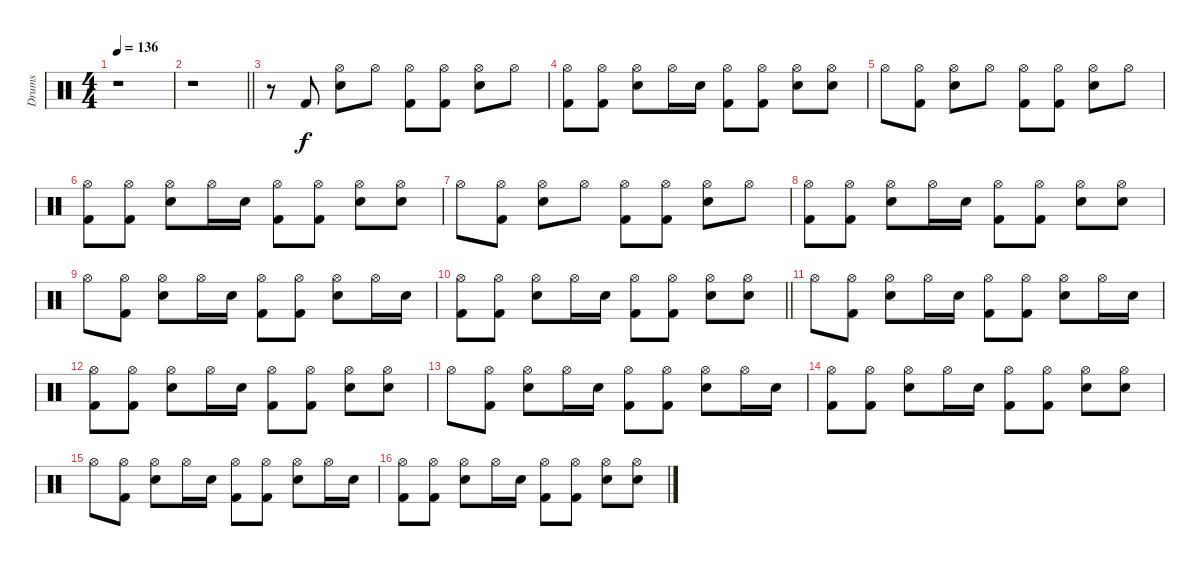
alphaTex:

\track ("Drums" "Drums") {instrument percussion}
\staff {score}
\articulation defaults
\ts (4 4)
\tempo 136
\clef neutral
\ks c
r.1{dy f} |
\barLineRight lightlight
r.1 |
\section ("" "")
r.8 "Kick (hit) 2".8 ("Hi-Hat (open)" "Snare (hit) 2").8 "Hi-Hat (open)".8 ("Hi-Hat (open)" "Kick (hit) 2").8 ("Hi-Hat (open)" "Kick (hit) 2").8 ("Hi-Hat (open)" "Snare (hit) 2").8 "Hi-Hat (open)".8 |
("Hi-Hat (open)" "Kick (hit) 2").8 ("Hi-Hat (open)" "Kick (hit) 2").8 ("Hi-Hat (open)" "Snare (hit) 2").8 "Hi-Hat (open)".16 "Snare (hit) 2".16 ("Hi-Hat (open)" "Kick (hit) 2").8 ("Hi-Hat (open)" "Kick (hit) 2").8 ("Hi-Hat (open)" "Snare (hit) 2").8 ("Hi-Hat (open)" "Snare (hit) 2").8 |
"Hi-Hat (open)".8 ("Hi-Hat (open)" "Kick (hit) 2").8 ("Hi-Hat (open)" "Snare (hit) 2").8 "Hi-Hat (open)".8 ("Hi-Hat (open)" "Kick (hit) 2").8 ("Hi-Hat (open)" "Kick (hit) 2").8 ("Hi-Hat (open)" "Snare (hit) 2").8 "Hi-Hat (open)".8 |
("Hi-Hat (open)" "Kick (hit) 2").8 ("Hi-Hat (open)" "Kick (hit) 2").8 ("Hi-Hat (open)" "Snare (hit) 2").8 "Hi-Hat (open)".16 "Snare (hit) 2".16 ("Hi-Hat (open)" "Kick (hit) 2").8 ("Hi-Hat (open)" "Kick (hit) 2").8 ("Hi-Hat (open)" "Snare (hit) 2").8 ("Hi-Hat (open)" "Snare (hit) 2").8 |
"Hi-Hat (open)".8 ("Hi-Hat (open)" "Kick (hit) 2").8 ("Hi-Hat (open)" "Snare (hit) 2").8 "Hi-Hat (open)".8 ("Hi-Hat (open)" "Kick (hit) 2").8 ("Hi-Hat (open)" "Kick (hit) 2").8 ("Hi-Hat (open)" "Snare (hit) 2").8 "Hi-Hat (open)".8 |
("Hi-Hat (open)" "Kick (hit) 2").8 ("Hi-Hat (open)" "Kick (hit) 2").8 ("Hi-Hat (open)" "Snare (hit) 2").8 "Hi-Hat (open)".16 "Snare (hit) 2".16 ("Hi-Hat (open)" "Kick (hit) 2").8 ("Hi-Hat (open)" "Kick (hit) 2").8 ("Hi-Hat (open)" "Snare (hit) 2").8 ("Hi-Hat (open)" "Snare (hit) 2").8 |
"Hi-Hat (open)".8 ("Hi-Hat (open)" "Kick (hit) 2").8 ("Hi-Hat (open)" "Snare (hit) 2").8 "Hi-Hat (open)".16 "Snare (hit) 2".16 ("Hi-Hat (open)" "Kick (hit) 2").8 ("Hi-Hat (open)" "Kick (hit) 2").8 ("Hi-Hat (open)" "Snare (hit) 2").8 "Hi-Hat (open)".16 "Snare (hit) 2".16 |
\barLineRight lightlight
("Hi-Hat (open)" "Kick (hit) 2").8 ("Hi-Hat (open)" "Kick (hit) 2").8 ("Hi-Hat (open)" "Snare (hit) 2").8 "Hi-Hat (open)".16 "Snare (hit) 2".16 ("Hi-Hat (open)" "Kick (hit) 2").8 ("Hi-Hat (open)" "Kick (hit) 2").8 ("Hi-Hat (open)" "Snare (hit) 2").8 ("Hi-Hat (open)" "Snare (hit) 2").8 |
\section ("" "")
"Hi-Hat (open)".8 ("Hi-Hat (open)" "Kick (hit) 2").8 ("Hi-Hat (open)" "Snare (hit) 2").8 "Hi-Hat (open)".16 "Snare (hit) 2".16 ("Hi-Hat (open)" "Kick (hit) 2").8 ("Hi-Hat (open)" "Kick (hit) 2").8 ("Hi-Hat (open)" "Snare (hit) 2").8 "Hi-Hat (open)".16 "Snare (hit) 2".16 |
("Hi-Hat (open)" "Kick (hit) 2").8 ("Hi-Hat (open)" "Kick (hit) 2").8 ("Hi-Hat (open)" "Snare (hit) 2").8 "Hi-Hat (open)".16 "Snare (hit) 2".16 ("Hi-Hat (open)" "Kick (hit) 2").8 ("Hi-Hat (open)" "Kick (hit) 2").8 ("Hi-Hat (open)" "Snare (hit) 2").8 ("Hi-Hat (open)" "Snare (hit) 2").8 |
"Hi-Hat (open)".8 ("Hi-Hat (open)" "Kick (hit) 2").8 ("Hi-Hat (open)" "Snare (hit) 2").8 "Hi-Hat (open)".16 "Snare (hit) 2".16 ("Hi-Hat (open)" "Kick (hit) 2").8 ("Hi-Hat (open)" "Kick (hit) 2").8 ("Hi-Hat (open)" "Snare (hit) 2").8 "Hi-Hat (open)".16 "Snare (hit) 2".16 |
("Hi-Hat (open)" "Kick (hit) 2").8 ("Hi-Hat (open)" "Kick (hit) 2").8 ("Hi-Hat (open)" "Snare (hit) 2").8 "Hi-Hat (open)".16 "Snare (hit) 2".16 ("Hi-Hat (open)" "Kick (hit) 2").8 ("Hi-Hat (open)" "Kick (hit) 2").8 ("Hi-Hat (open)" "Snare (hit) 2").8 ("Hi-Hat (open)" "Snare (hit) 2").8 |
"Hi-Hat (open)".8 ("Hi-Hat (open)" "Kick (hit) 2").8 ("Hi-Hat (open)" "Snare (hit) 2").8 "Hi-Hat (open)".16 "Snare (hit) 2".16 ("Hi-Hat (open)" "Kick (hit) 2").8 ("Hi-Hat (open)" "Kick (hit) 2").8 ("Hi-Hat (open)" "Snare (hit) 2").8 "Hi-Hat (open)".16 "Snare (hit) 2".16 |
("Hi-Hat (open)" "Kick (hit) 2").8 ("Hi-Hat (open)" "Kick (hit) 2").8 ("Hi-Hat (open)" "Snare (hit) 2").8 "Hi-Hat (open)".16 "Snare (hit) 2".16 ("Hi-Hat (open)" "Kick (hit) 2").8 ("Hi-Hat (open)" "Kick (hit) 2").8 ("Hi-Hat (open)" "Snare (hit) 2").8 ("Hi-Hat (open)" "Snare (hit) 2").8
